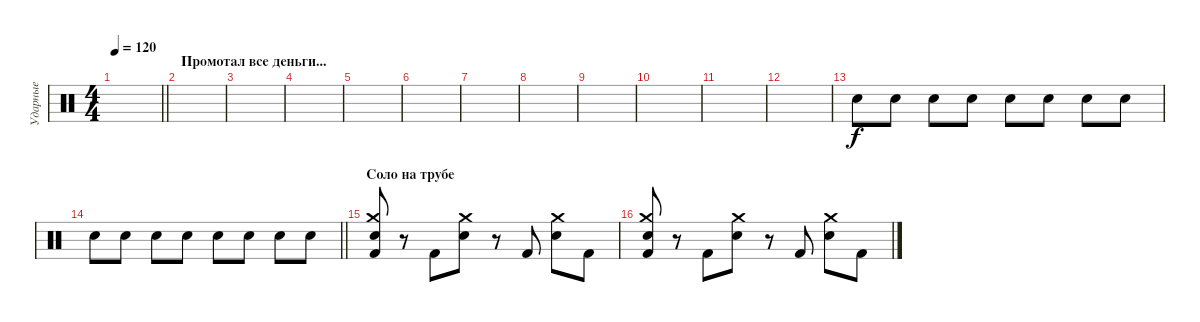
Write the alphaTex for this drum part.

\track ("Ударные" "Ударные") {instrument percussion}
\staff {score}
\articulation defaults
\ts (4 4)
\tempo 120
\clef neutral
\barLineRight lightlight
\ks c
|
\section ("" "Промотал все деньги...")
|
|
|
|
|
|
|
|
|
|
|
"Snare (hit) 2".8{volume 4} "Snare (hit) 2".8 "Snare (hit) 2".8 "Snare (hit) 2".8 "Snare (hit) 2".8 "Snare (hit) 2".8 "Snare (hit) 2".8 "Snare (hit) 2".8 |
\barLineRight lightlight "Snare (hit) 2".8 "Snare (hit) 2".8 "Snare (hit) 2".8 "Snare (hit) 2".8 "Snare (hit) 2".8 "Snare (hit) 2".8 "Snare (hit) 2".8 "Snare (hit) 2".8
|
\section ("" "Соло на трубе")
("Crash medium (hit)" "Snare (hit) 2" "Kick (hit) 2").8{volume 4} r.8 "Kick (hit) 2".8 ("Crash medium (hit)" "Snare (hit) 2").8 r.8 "Kick (hit) 2".8 ("Crash medium (hit)" "Snare (hit) 2").8 "Kick (hit) 2".8 |
("Crash medium (hit)" "Snare (hit) 2" "Kick (hit) 2").8 r.8 "Kick (hit) 2".8 ("Crash medium (hit)" "Snare (hit) 2").8 r.8 "Kick (hit) 2".8 ("Crash medium (hit)" "Snare (hit) 2").8 "Kick (hit) 2".8
